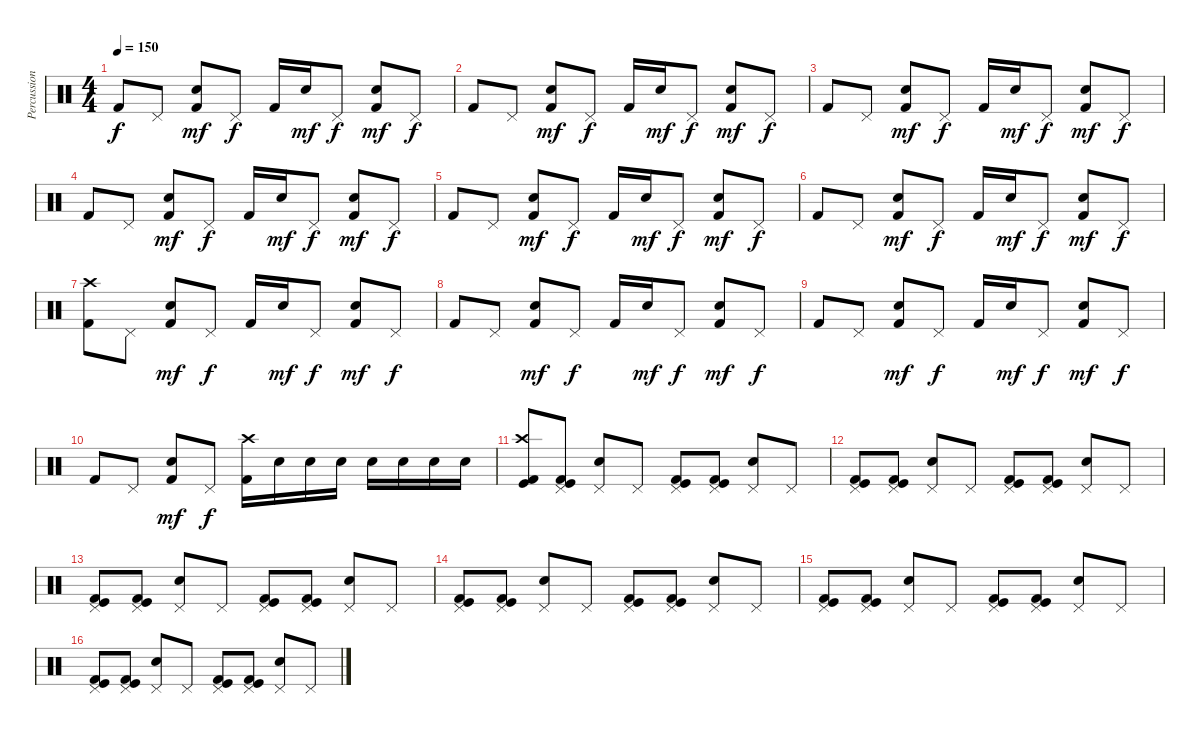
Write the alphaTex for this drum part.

\track ("Percussions" "Percussion") {instrument percussion}
\staff {score}
\articulation defaults
\ts (4 4)
\tempo 150
\clef neutral
\ks c "Kick (hit) 2".8{dy f} "Pedal Hi-Hat (hit)".8
("Electric Snare (hit)" "Kick (hit) 2").8{dy mf} "Pedal Hi-Hat (hit)".8{dy f} "Kick (hit) 2".16 "Electric Snare (hit)".16{dy mf} "Pedal Hi-Hat (hit)".8{dy f} ("Electric Snare (hit)" "Kick (hit) 2").8{dy mf} "Pedal Hi-Hat (hit)".8{dy f} |
"Kick (hit) 2".8 "Pedal Hi-Hat (hit)".8 ("Electric Snare (hit)" "Kick (hit) 2").8{dy mf} "Pedal Hi-Hat (hit)".8{dy f} "Kick (hit) 2".16 "Electric Snare (hit)".16{dy mf} "Pedal Hi-Hat (hit)".8{dy f} ("Electric Snare (hit)" "Kick (hit) 2").8{dy mf} "Pedal Hi-Hat (hit)".8{dy f} |
"Kick (hit) 2".8 "Pedal Hi-Hat (hit)".8 ("Electric Snare (hit)" "Kick (hit) 2").8{dy mf} "Pedal Hi-Hat (hit)".8{dy f} "Kick (hit) 2".16 "Electric Snare (hit)".16{dy mf} "Pedal Hi-Hat (hit)".8{dy f} ("Electric Snare (hit)" "Kick (hit) 2").8{dy mf} "Pedal Hi-Hat (hit)".8{dy f} |
"Kick (hit) 2".8 "Pedal Hi-Hat (hit)".8 ("Electric Snare (hit)" "Kick (hit) 2").8{dy mf} "Pedal Hi-Hat (hit)".8{dy f} "Kick (hit) 2".16 "Electric Snare (hit)".16{dy mf} "Pedal Hi-Hat (hit)".8{dy f} ("Electric Snare (hit)" "Kick (hit) 2").8{dy mf} "Pedal Hi-Hat (hit)".8{dy f} |
"Kick (hit) 2".8 "Pedal Hi-Hat (hit)".8 ("Electric Snare (hit)" "Kick (hit) 2").8{dy mf} "Pedal Hi-Hat (hit)".8{dy f} "Kick (hit) 2".16 "Electric Snare (hit)".16{dy mf} "Pedal Hi-Hat (hit)".8{dy f} ("Electric Snare (hit)" "Kick (hit) 2").8{dy mf} "Pedal Hi-Hat (hit)".8{dy f} |
"Kick (hit) 2".8 "Pedal Hi-Hat (hit)".8 ("Electric Snare (hit)" "Kick (hit) 2").8{dy mf} "Pedal Hi-Hat (hit)".8{dy f} "Kick (hit) 2".16 "Electric Snare (hit)".16{dy mf} "Pedal Hi-Hat (hit)".8{dy f} ("Electric Snare (hit)" "Kick (hit) 2").8{dy mf} "Pedal Hi-Hat (hit)".8{dy f} |
("Crash high (hit)" "Kick (hit) 2").8 "Pedal Hi-Hat (hit)".8 ("Electric Snare (hit)" "Kick (hit) 2").8{dy mf} "Pedal Hi-Hat (hit)".8{dy f} "Kick (hit) 2".16 "Electric Snare (hit)".16{dy mf} "Pedal Hi-Hat (hit)".8{dy f} ("Electric Snare (hit)" "Kick (hit) 2").8{dy mf} "Pedal Hi-Hat (hit)".8{dy f} |
"Kick (hit) 2".8 "Pedal Hi-Hat (hit)".8 ("Electric Snare (hit)" "Kick (hit) 2").8{dy mf} "Pedal Hi-Hat (hit)".8{dy f} "Kick (hit) 2".16 "Electric Snare (hit)".16{dy mf} "Pedal Hi-Hat (hit)".8{dy f} ("Electric Snare (hit)" "Kick (hit) 2").8{dy mf} "Pedal Hi-Hat (hit)".8{dy f} |
"Kick (hit) 2".8 "Pedal Hi-Hat (hit)".8 ("Electric Snare (hit)" "Kick (hit) 2").8{dy mf} "Pedal Hi-Hat (hit)".8{dy f} "Kick (hit) 2".16 "Electric Snare (hit)".16{dy mf} "Pedal Hi-Hat (hit)".8{dy f} ("Electric Snare (hit)" "Kick (hit) 2").8{dy mf} "Pedal Hi-Hat (hit)".8{dy f} |
"Kick (hit) 2".8 "Pedal Hi-Hat (hit)".8 ("Electric Snare (hit)" "Kick (hit) 2").8{dy mf} "Pedal Hi-Hat (hit)".8{dy f} ("Crash high (hit)" "Kick (hit) 2").16 "Electric Snare (hit)".16 "Electric Snare (hit)".16 "Electric Snare (hit)".16 "Electric Snare (hit)".16 "Electric Snare (hit)".16 "Electric Snare (hit)".16 "Electric Snare (hit)".16 |
("Crash high (hit)" "Kick (hit)" "Kick (hit) 2").8 ("Pedal Hi-Hat (hit)" "Kick (hit)" "Kick (hit) 2").8 ("Pedal Hi-Hat (hit)" "Electric Snare (hit)").8 "Pedal Hi-Hat (hit)".8 ("Pedal Hi-Hat (hit)" "Kick (hit)" "Kick (hit) 2").8 ("Pedal Hi-Hat (hit)" "Kick (hit)" "Kick (hit) 2").8 ("Pedal Hi-Hat (hit)" "Electric Snare (hit)").8 "Pedal Hi-Hat (hit)".8 |
("Pedal Hi-Hat (hit)" "Kick (hit)" "Kick (hit) 2").8 ("Pedal Hi-Hat (hit)" "Kick (hit)" "Kick (hit) 2").8 ("Pedal Hi-Hat (hit)" "Electric Snare (hit)").8 "Pedal Hi-Hat (hit)".8 ("Pedal Hi-Hat (hit)" "Kick (hit)" "Kick (hit) 2").8 ("Pedal Hi-Hat (hit)" "Kick (hit)" "Kick (hit) 2").8 ("Pedal Hi-Hat (hit)" "Electric Snare (hit)").8 "Pedal Hi-Hat (hit)".8 |
("Pedal Hi-Hat (hit)" "Kick (hit)" "Kick (hit) 2").8 ("Pedal Hi-Hat (hit)" "Kick (hit)" "Kick (hit) 2").8 ("Pedal Hi-Hat (hit)" "Electric Snare (hit)").8 "Pedal Hi-Hat (hit)".8 ("Pedal Hi-Hat (hit)" "Kick (hit)" "Kick (hit) 2").8 ("Pedal Hi-Hat (hit)" "Kick (hit)" "Kick (hit) 2").8 ("Pedal Hi-Hat (hit)" "Electric Snare (hit)").8 "Pedal Hi-Hat (hit)".8 |
("Pedal Hi-Hat (hit)" "Kick (hit)" "Kick (hit) 2").8 ("Pedal Hi-Hat (hit)" "Kick (hit)" "Kick (hit) 2").8 ("Pedal Hi-Hat (hit)" "Electric Snare (hit)").8 "Pedal Hi-Hat (hit)".8 ("Pedal Hi-Hat (hit)" "Kick (hit)" "Kick (hit) 2").8 ("Pedal Hi-Hat (hit)" "Kick (hit)" "Kick (hit) 2").8 ("Pedal Hi-Hat (hit)" "Electric Snare (hit)").8 "Pedal Hi-Hat (hit)".8 |
("Pedal Hi-Hat (hit)" "Kick (hit)" "Kick (hit) 2").8 ("Pedal Hi-Hat (hit)" "Kick (hit)" "Kick (hit) 2").8 ("Pedal Hi-Hat (hit)" "Electric Snare (hit)").8 "Pedal Hi-Hat (hit)".8 ("Pedal Hi-Hat (hit)" "Kick (hit)" "Kick (hit) 2").8 ("Pedal Hi-Hat (hit)" "Kick (hit)" "Kick (hit) 2").8 ("Pedal Hi-Hat (hit)" "Electric Snare (hit)").8 "Pedal Hi-Hat (hit)".8 |
("Pedal Hi-Hat (hit)" "Kick (hit)" "Kick (hit) 2").8 ("Pedal Hi-Hat (hit)" "Kick (hit)" "Kick (hit) 2").8 ("Pedal Hi-Hat (hit)" "Electric Snare (hit)").8 "Pedal Hi-Hat (hit)".8 ("Pedal Hi-Hat (hit)" "Kick (hit)" "Kick (hit) 2").8 ("Pedal Hi-Hat (hit)" "Kick (hit)" "Kick (hit) 2").8 ("Pedal Hi-Hat (hit)" "Electric Snare (hit)").8 "Pedal Hi-Hat (hit)".8
